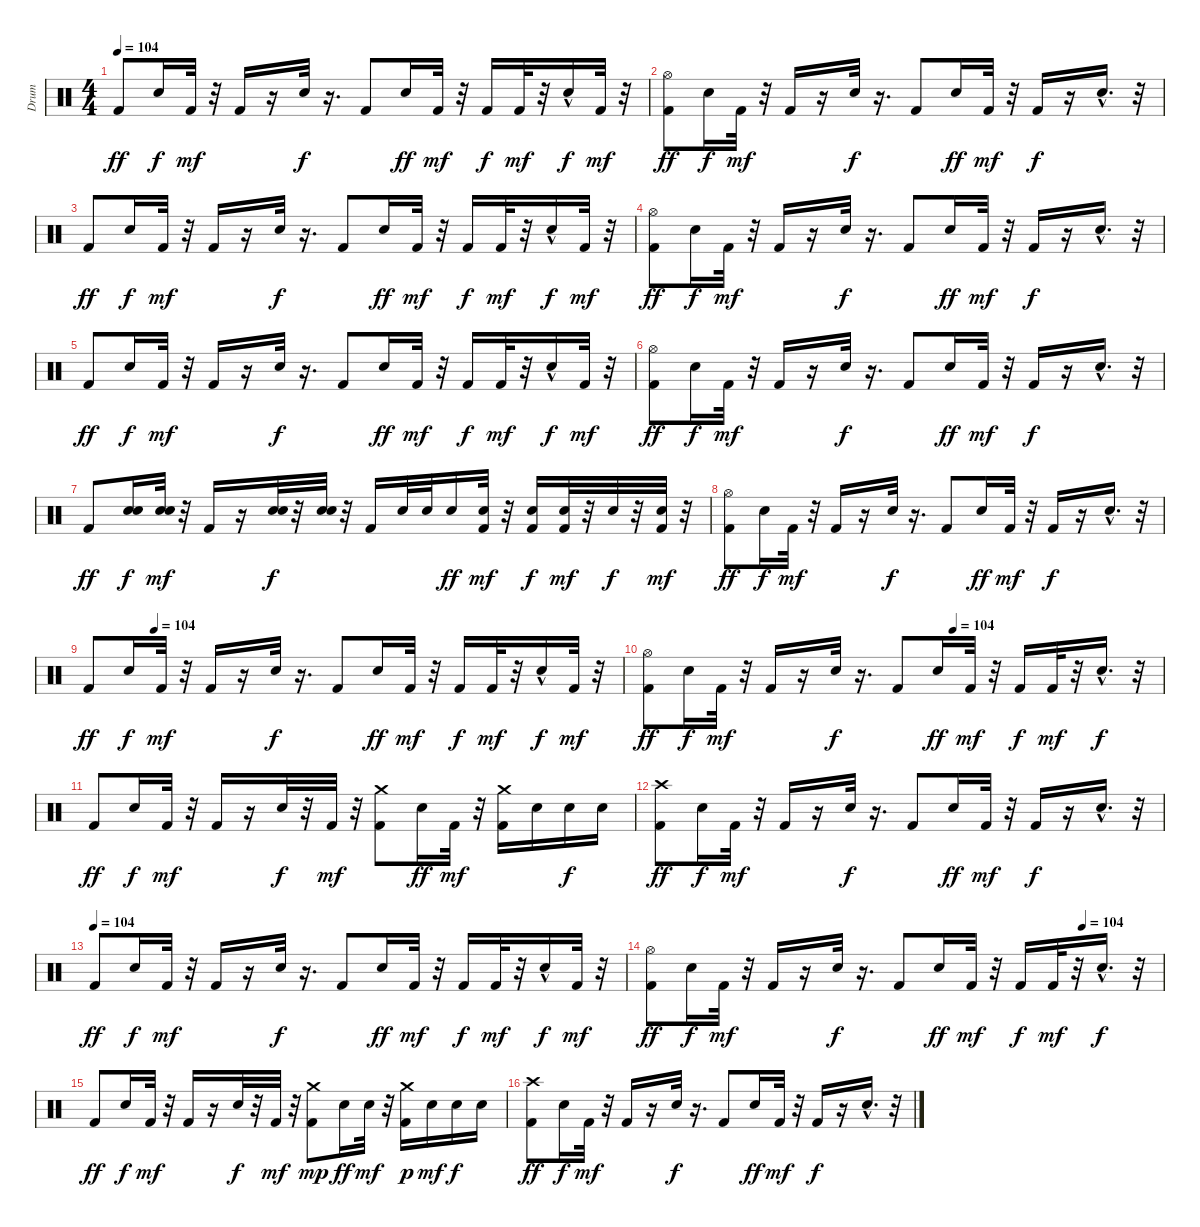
\track ("Drum" "Drum") {instrument percussion}
\staff {score}
\articulation defaults
\ts (4 4)
\tempo 104
\clef neutral
\ks c "Kick (hit) 2".8{dy ff} "Electric Snare (hit)".16{dy f} "Kick (hit) 2".32{dy mf}
r.32 "Kick (hit) 2".16 r.16 "Electric Snare (hit)".32{dy f} r.16{d} "Kick (hit) 2".8 "Electric Snare (hit)".16{dy ff} "Kick (hit) 2".32{dy mf} r.32 "Kick (hit) 2".16{dy f} "Kick (hit) 2".32{dy mf} r.32 "Electric Snare (hit)"{hac}.16{dy f} "Kick (hit) 2".32{dy mf} r.32 |
("Hi-Hat (open)" "Kick (hit) 2").8{dy ff} "Electric Snare (hit)".16{dy f} "Kick (hit) 2".32{dy mf} r.32 "Kick (hit) 2".16 r.16 "Electric Snare (hit)".32{dy f} r.16{d} "Kick (hit) 2".8 "Electric Snare (hit)".16{dy ff} "Kick (hit) 2".32{dy mf} r.32 "Kick (hit) 2".16{dy f} r.16 "Electric Snare (hit)"{hac}.16{d} r.32 |
"Kick (hit) 2".8{dy ff} "Electric Snare (hit)".16{dy f} "Kick (hit) 2".32{dy mf} r.32 "Kick (hit) 2".16 r.16 "Electric Snare (hit)".32{dy f} r.16{d} "Kick (hit) 2".8 "Electric Snare (hit)".16{dy ff} "Kick (hit) 2".32{dy mf} r.32 "Kick (hit) 2".16{dy f} "Kick (hit) 2".32{dy mf} r.32 "Electric Snare (hit)"{hac}.16{dy f} "Kick (hit) 2".32{dy mf} r.32 |
("Hi-Hat (open)" "Kick (hit) 2").8{dy ff} "Electric Snare (hit)".16{dy f} "Kick (hit) 2".32{dy mf} r.32 "Kick (hit) 2".16 r.16 "Electric Snare (hit)".32{dy f} r.16{d} "Kick (hit) 2".8 "Electric Snare (hit)".16{dy ff} "Kick (hit) 2".32{dy mf} r.32 "Kick (hit) 2".16{dy f} r.16 "Electric Snare (hit)"{hac}.16{d} r.32 |
"Kick (hit) 2".8{dy ff} "Electric Snare (hit)".16{dy f} "Kick (hit) 2".32{dy mf} r.32 "Kick (hit) 2".16 r.16 "Electric Snare (hit)".32{dy f} r.16{d} "Kick (hit) 2".8 "Electric Snare (hit)".16{dy ff} "Kick (hit) 2".32{dy mf} r.32 "Kick (hit) 2".16{dy f} "Kick (hit) 2".32{dy mf} r.32 "Electric Snare (hit)"{hac}.16{dy f} "Kick (hit) 2".32{dy mf} r.32 |
("Hi-Hat (open)" "Kick (hit) 2").8{dy ff} "Electric Snare (hit)".16{dy f} "Kick (hit) 2".32{dy mf} r.32 "Kick (hit) 2".16 r.16 "Electric Snare (hit)".32{dy f} r.16{d} "Kick (hit) 2".8 "Electric Snare (hit)".16{dy ff} "Kick (hit) 2".32{dy mf} r.32 "Kick (hit) 2".16{dy f} r.16 "Electric Snare (hit)"{hac}.16{d} r.32 |
"Kick (hit) 2".8{dy ff} ("Snare (hit) 2" "Electric Snare (hit)").16{dy f} ("Snare (hit) 2" "Electric Snare (hit)").32{dy mf} r.32 "Kick (hit) 2".16 r.16 ("Snare (hit) 2" "Electric Snare (hit)").32{dy f} r.32 ("Snare (hit) 2" "Electric Snare (hit)").32 r.32 "Kick (hit) 2".16 "Snare (hit) 2".32 "Snare (hit) 2".32 "Electric Snare (hit)".16{dy ff} ("Snare (hit) 2" "Kick (hit) 2").32{dy mf} r.32 ("Snare (hit) 2" "Kick (hit) 2").16{dy f} ("Kick (hit) 2" "Snare (hit) 2").32{dy mf} r.32 "Electric Snare (hit)".32{dy f} r.32 ("Kick (hit) 2" "Electric Snare (hit)").32{dy mf} r.32 |
("Hi-Hat (open)" "Kick (hit) 2").8{dy ff} "Electric Snare (hit)".16{dy f} "Kick (hit) 2".32{dy mf} r.32 "Kick (hit) 2".16 r.16 "Electric Snare (hit)".32{dy f} r.16{d} "Kick (hit) 2".8 "Electric Snare (hit)".16{dy ff} "Kick (hit) 2".32{dy mf} r.32 "Kick (hit) 2".16{dy f} r.16 "Electric Snare (hit)"{hac}.16{d} r.32 |
\tempo (104 0.125)
"Kick (hit) 2".8{dy ff} "Electric Snare (hit)".16{dy f} "Kick (hit) 2".32{dy mf} r.32 "Kick (hit) 2".16 r.16 "Electric Snare (hit)".32{dy f} r.16{d} "Kick (hit) 2".8 "Electric Snare (hit)".16{dy ff} "Kick (hit) 2".32{dy mf} r.32 "Kick (hit) 2".16{dy f} "Kick (hit) 2".32{dy mf} r.32 "Electric Snare (hit)"{hac}.16{dy f} "Kick (hit) 2".32{dy mf} r.32 |
\tempo (104 0.59375)
("Hi-Hat (open)" "Kick (hit) 2").8{dy ff} "Electric Snare (hit)".16{dy f} "Kick (hit) 2".32{dy mf} r.32 "Kick (hit) 2".16 r.16 "Electric Snare (hit)".32{dy f} r.16{d} "Kick (hit) 2".8 "Electric Snare (hit)".16{dy ff} "Kick (hit) 2".32{dy mf} r.32 "Kick (hit) 2".16{dy f} "Kick (hit) 2".32{dy mf} r.32 "Electric Snare (hit)"{hac}.16{d dy f} r.32 |
"Kick (hit) 2".8{dy ff} "Electric Snare (hit)".16{dy f} "Kick (hit) 2".32{dy mf} r.32 "Kick (hit) 2".16 r.16 "Electric Snare (hit)".32{dy f} r.32 "Kick (hit) 2".32{dy mf} r.32 ("Crash medium (hit)" "Kick (hit) 2").8 "Electric Snare (hit)".16{dy ff} "Kick (hit) 2".32{dy mf} r.32 ("Crash medium (hit)" "Kick (hit) 2").16 "Electric Snare (hit)".16 "Electric Snare (hit)".16{dy f} "Electric Snare (hit)".16 |
("Crash high (hit)" "Kick (hit) 2").8{dy ff} "Electric Snare (hit)".16{dy f} "Kick (hit) 2".32{dy mf} r.32 "Kick (hit) 2".16 r.16 "Electric Snare (hit)".32{dy f} r.16{d} "Kick (hit) 2".8 "Electric Snare (hit)".16{dy ff} "Kick (hit) 2".32{dy mf} r.32 "Kick (hit) 2".16{dy f} r.16 "Electric Snare (hit)"{hac}.16{d} r.32 |
\tempo (104)
"Kick (hit) 2".8{dy ff} "Electric Snare (hit)".16{dy f} "Kick (hit) 2".32{dy mf} r.32 "Kick (hit) 2".16 r.16 "Electric Snare (hit)".32{dy f} r.16{d} "Kick (hit) 2".8 "Electric Snare (hit)".16{dy ff} "Kick (hit) 2".32{dy mf} r.32 "Kick (hit) 2".16{dy f} "Kick (hit) 2".32{dy mf} r.32 "Electric Snare (hit)"{hac}.16{dy f} "Kick (hit) 2".32{dy mf} r.32 |
\tempo (104 0.84375)
("Hi-Hat (open)" "Kick (hit) 2").8{dy ff} "Electric Snare (hit)".16{dy f} "Kick (hit) 2".32{dy mf} r.32 "Kick (hit) 2".16 r.16 "Electric Snare (hit)".32{dy f} r.16{d} "Kick (hit) 2".8 "Electric Snare (hit)".16{dy ff} "Kick (hit) 2".32{dy mf} r.32 "Kick (hit) 2".16{dy f} "Kick (hit) 2".32{dy mf} r.32 "Electric Snare (hit)"{hac}.16{d dy f} r.32 |
"Kick (hit) 2".8{dy ff} "Electric Snare (hit)".16{dy f} "Kick (hit) 2".32{dy mf} r.32 "Kick (hit) 2".16 r.16 "Electric Snare (hit)".32{dy f} r.32 "Kick (hit) 2".32{dy mf} r.32 ("Crash medium (hit)" "Kick (hit) 2").8{dy mp} "Electric Snare (hit)".16{dy ff} "Electric Snare (hit)".32{dy mf} r.32 ("Crash medium (hit)" "Kick (hit) 2").16{dy p} "Electric Snare (hit)".16{dy mf} "Electric Snare (hit)".16{dy f} "Electric Snare (hit)".16 |
("Crash high (hit)" "Kick (hit) 2").8{dy ff} "Electric Snare (hit)".16{dy f} "Kick (hit) 2".32{dy mf} r.32 "Kick (hit) 2".16 r.16 "Electric Snare (hit)".32{dy f} r.16{d} "Kick (hit) 2".8 "Electric Snare (hit)".16{dy ff} "Kick (hit) 2".32{dy mf} r.32 "Kick (hit) 2".16{dy f} r.16 "Electric Snare (hit)"{hac}.16{d} r.32
